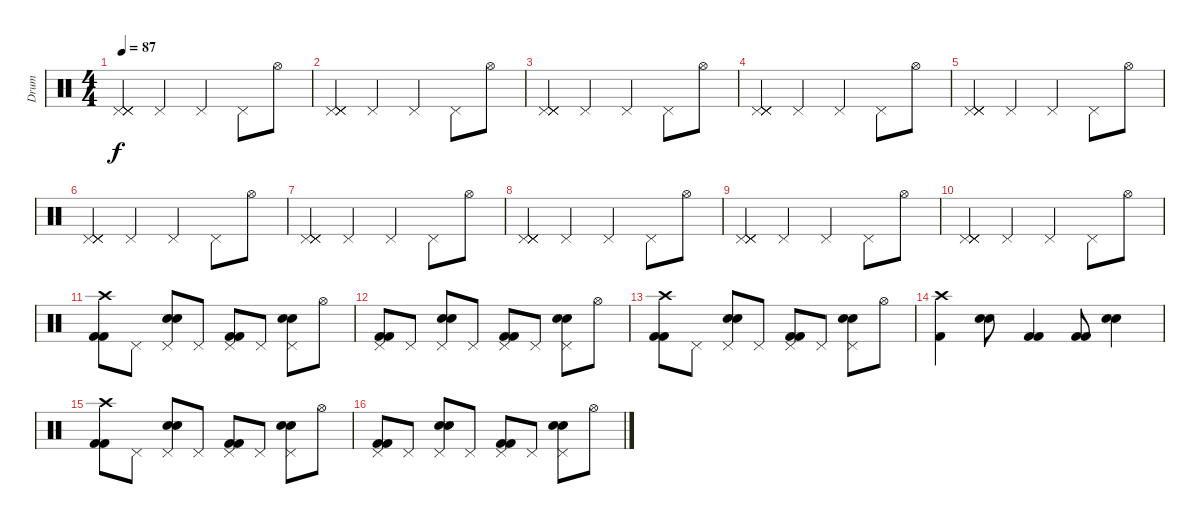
\track ("Drum" "Drum") {instrument percussion}
\staff {score}
\articulation defaults
\ts (4 4)
\tempo 87
\clef neutral
\ks c
("Pedal Hi-Hat (hit)" "Pedal Hi-Hat (hit)" "Pedal Hi-Hat (hit)" "Pedal Hi-Hat (hit)").4{dy f} "Pedal Hi-Hat (hit)".4 "Pedal Hi-Hat (hit)".4 "Pedal Hi-Hat (hit)".8 "Hi-Hat (open)".8 |
("Pedal Hi-Hat (hit)" "Pedal Hi-Hat (hit)" "Pedal Hi-Hat (hit)" "Pedal Hi-Hat (hit)").4 "Pedal Hi-Hat (hit)".4 "Pedal Hi-Hat (hit)".4 "Pedal Hi-Hat (hit)".8 "Hi-Hat (open)".8 |
("Pedal Hi-Hat (hit)" "Pedal Hi-Hat (hit)" "Pedal Hi-Hat (hit)" "Pedal Hi-Hat (hit)").4 "Pedal Hi-Hat (hit)".4 "Pedal Hi-Hat (hit)".4 "Pedal Hi-Hat (hit)".8 "Hi-Hat (open)".8 |
("Pedal Hi-Hat (hit)" "Pedal Hi-Hat (hit)" "Pedal Hi-Hat (hit)" "Pedal Hi-Hat (hit)").4 "Pedal Hi-Hat (hit)".4 "Pedal Hi-Hat (hit)".4 "Pedal Hi-Hat (hit)".8 "Hi-Hat (open)".8 |
("Pedal Hi-Hat (hit)" "Pedal Hi-Hat (hit)" "Pedal Hi-Hat (hit)" "Pedal Hi-Hat (hit)").4 "Pedal Hi-Hat (hit)".4 "Pedal Hi-Hat (hit)".4 "Pedal Hi-Hat (hit)".8 "Hi-Hat (open)".8 |
("Pedal Hi-Hat (hit)" "Pedal Hi-Hat (hit)" "Pedal Hi-Hat (hit)" "Pedal Hi-Hat (hit)").4 "Pedal Hi-Hat (hit)".4 "Pedal Hi-Hat (hit)".4 "Pedal Hi-Hat (hit)".8 "Hi-Hat (open)".8 |
("Pedal Hi-Hat (hit)" "Pedal Hi-Hat (hit)" "Pedal Hi-Hat (hit)" "Pedal Hi-Hat (hit)").4 "Pedal Hi-Hat (hit)".4 "Pedal Hi-Hat (hit)".4 "Pedal Hi-Hat (hit)".8 "Hi-Hat (open)".8 |
("Pedal Hi-Hat (hit)" "Pedal Hi-Hat (hit)" "Pedal Hi-Hat (hit)" "Pedal Hi-Hat (hit)").4 "Pedal Hi-Hat (hit)".4 "Pedal Hi-Hat (hit)".4 "Pedal Hi-Hat (hit)".8 "Hi-Hat (open)".8 |
("Pedal Hi-Hat (hit)" "Pedal Hi-Hat (hit)" "Pedal Hi-Hat (hit)" "Pedal Hi-Hat (hit)").4 "Pedal Hi-Hat (hit)".4 "Pedal Hi-Hat (hit)".4 "Pedal Hi-Hat (hit)".8 "Hi-Hat (open)".8 |
("Pedal Hi-Hat (hit)" "Pedal Hi-Hat (hit)" "Pedal Hi-Hat (hit)" "Pedal Hi-Hat (hit)").4 "Pedal Hi-Hat (hit)".4 "Pedal Hi-Hat (hit)".4 "Pedal Hi-Hat (hit)".8 "Hi-Hat (open)".8 |
("Crash high (hit)" "Kick (hit) 2" "Kick (hit) 2").8 "Pedal Hi-Hat (hit)".8 ("Pedal Hi-Hat (hit)" "Electric Snare (hit)" "Electric Snare (hit)").8 "Pedal Hi-Hat (hit)".8 ("Pedal Hi-Hat (hit)" "Kick (hit) 2" "Kick (hit) 2").8 "Pedal Hi-Hat (hit)".8 ("Pedal Hi-Hat (hit)" "Electric Snare (hit)" "Electric Snare (hit)").8 "Hi-Hat (open)".8 |
("Pedal Hi-Hat (hit)" "Kick (hit) 2" "Kick (hit) 2").8 "Pedal Hi-Hat (hit)".8 ("Pedal Hi-Hat (hit)" "Electric Snare (hit)" "Electric Snare (hit)").8 "Pedal Hi-Hat (hit)".8 ("Pedal Hi-Hat (hit)" "Kick (hit) 2" "Kick (hit) 2").8 "Pedal Hi-Hat (hit)".8 ("Pedal Hi-Hat (hit)" "Electric Snare (hit)" "Electric Snare (hit)").8 "Hi-Hat (open)".8 |
("Crash high (hit)" "Kick (hit) 2" "Kick (hit) 2").8 "Pedal Hi-Hat (hit)".8 ("Pedal Hi-Hat (hit)" "Electric Snare (hit)" "Electric Snare (hit)").8 "Pedal Hi-Hat (hit)".8 ("Pedal Hi-Hat (hit)" "Kick (hit) 2" "Kick (hit) 2").8 "Pedal Hi-Hat (hit)".8 ("Pedal Hi-Hat (hit)" "Electric Snare (hit)" "Electric Snare (hit)").8 "Hi-Hat (open)".8 |
("Crash high (hit)" "Kick (hit) 2").4 ("Electric Snare (hit)" "Electric Snare (hit)").8 ("Kick (hit) 2" "Kick (hit) 2").4 ("Kick (hit) 2" "Kick (hit) 2").8 ("Electric Snare (hit)" "Electric Snare (hit)").4 |
("Crash high (hit)" "Kick (hit) 2" "Kick (hit) 2").8 "Pedal Hi-Hat (hit)".8 ("Pedal Hi-Hat (hit)" "Electric Snare (hit)" "Electric Snare (hit)").8 "Pedal Hi-Hat (hit)".8 ("Pedal Hi-Hat (hit)" "Kick (hit) 2" "Kick (hit) 2").8 "Pedal Hi-Hat (hit)".8 ("Pedal Hi-Hat (hit)" "Electric Snare (hit)" "Electric Snare (hit)").8 "Hi-Hat (open)".8 |
("Pedal Hi-Hat (hit)" "Kick (hit) 2" "Kick (hit) 2").8 "Pedal Hi-Hat (hit)".8 ("Pedal Hi-Hat (hit)" "Electric Snare (hit)" "Electric Snare (hit)").8 "Pedal Hi-Hat (hit)".8 ("Pedal Hi-Hat (hit)" "Kick (hit) 2" "Kick (hit) 2").8 "Pedal Hi-Hat (hit)".8 ("Pedal Hi-Hat (hit)" "Electric Snare (hit)" "Electric Snare (hit)").8 "Hi-Hat (open)".8
